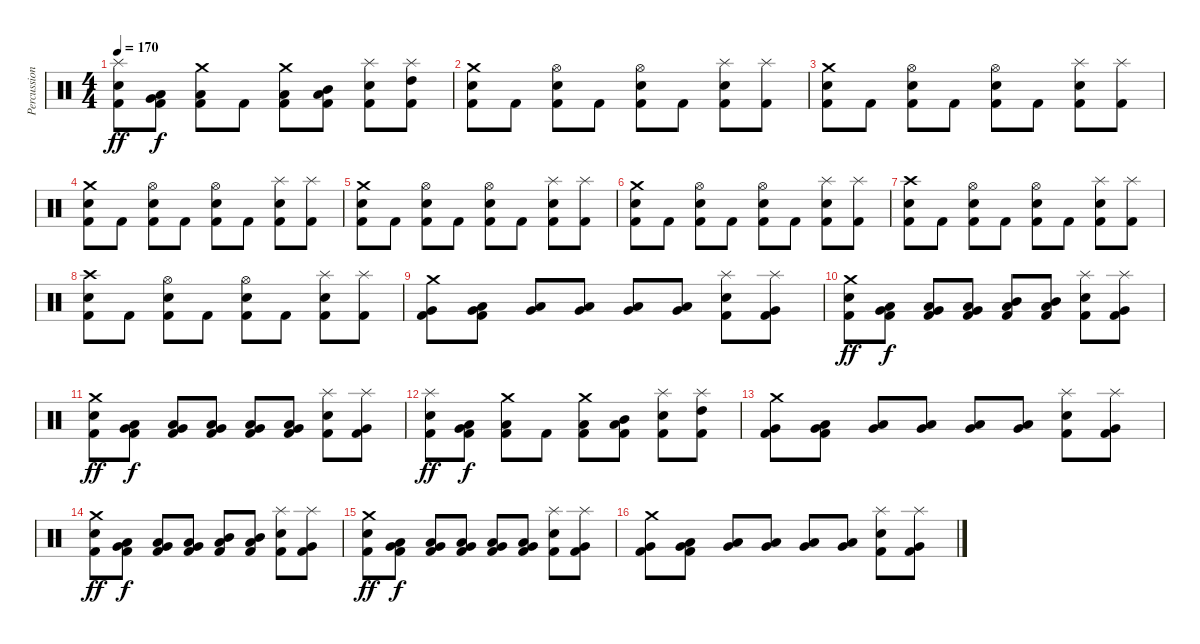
\track ("Percussion" "Percussion") {instrument percussion}
\staff {score}
\articulation defaults
\ts (4 4)
\tempo 170
\clef neutral
\ks c
("Splash (hit)" "Snare (hit) 2" "Kick (hit) 2").8{dy ff} ("Very Low Tom (hit)" "Low Tom (hit)" "Kick (hit) 2").8{dy f} ("Crash medium (hit)" "Low Tom (hit)" "Kick (hit) 2").8 "Kick (hit) 2".8 ("Crash medium (hit)" "Low Tom (hit)" "Kick (hit) 2").8 ("Low Tom (hit)" "Mid Tom (hit)" "Kick (hit) 2").8 ("Splash (hit)" "Snare (hit) 2" "Kick (hit) 2").8 ("Splash (hit)" "High Tom (hit)" "Kick (hit) 2").8 |
("Snare (hit) 2" "Crash medium (hit)" "Kick (hit) 2").8 "Kick (hit) 2".8 ("Snare (hit) 2" "Hi-Hat (open)" "Kick (hit) 2").8 "Kick (hit) 2".8 ("Snare (hit) 2" "Hi-Hat (open)" "Kick (hit) 2").8 "Kick (hit) 2".8 ("Snare (hit) 2" "Splash (hit)" "Kick (hit) 2").8 ("Splash (hit)" "Kick (hit) 2").8 |
("Snare (hit) 2" "Crash medium (hit)" "Kick (hit) 2").8 "Kick (hit) 2".8 ("Snare (hit) 2" "Hi-Hat (open)" "Kick (hit) 2").8 "Kick (hit) 2".8 ("Snare (hit) 2" "Hi-Hat (open)" "Kick (hit) 2").8 "Kick (hit) 2".8 ("Snare (hit) 2" "Splash (hit)" "Kick (hit) 2").8 ("Splash (hit)" "Kick (hit) 2").8 |
("Snare (hit) 2" "Crash medium (hit)" "Kick (hit) 2").8{volume 3} "Kick (hit) 2".8 ("Snare (hit) 2" "Hi-Hat (open)" "Kick (hit) 2").8 "Kick (hit) 2".8 ("Snare (hit) 2" "Hi-Hat (open)" "Kick (hit) 2").8 "Kick (hit) 2".8 ("Snare (hit) 2" "Splash (hit)" "Kick (hit) 2").8 ("Splash (hit)" "Kick (hit) 2").8 |
("Snare (hit) 2" "Crash medium (hit)" "Kick (hit) 2").8 "Kick (hit) 2".8 ("Snare (hit) 2" "Hi-Hat (open)" "Kick (hit) 2").8 "Kick (hit) 2".8 ("Snare (hit) 2" "Hi-Hat (open)" "Kick (hit) 2").8 "Kick (hit) 2".8 ("Snare (hit) 2" "Splash (hit)" "Kick (hit) 2").8 ("Splash (hit)" "Kick (hit) 2").8 |
("Snare (hit) 2" "Crash medium (hit)" "Kick (hit) 2").8 "Kick (hit) 2".8 ("Snare (hit) 2" "Hi-Hat (open)" "Kick (hit) 2").8 "Kick (hit) 2".8 ("Snare (hit) 2" "Hi-Hat (open)" "Kick (hit) 2").8 "Kick (hit) 2".8 ("Snare (hit) 2" "Splash (hit)" "Kick (hit) 2").8 ("Splash (hit)" "Kick (hit) 2").8 |
("Snare (hit) 2" "Crash high (hit)" "Kick (hit) 2").8 "Kick (hit) 2".8 ("Snare (hit) 2" "Hi-Hat (open)" "Kick (hit) 2").8 "Kick (hit) 2".8 ("Snare (hit) 2" "Hi-Hat (open)" "Kick (hit) 2").8 "Kick (hit) 2".8 ("Snare (hit) 2" "Splash (hit)" "Kick (hit) 2").8 ("Splash (hit)" "Kick (hit) 2").8 |
("Snare (hit) 2" "Crash high (hit)" "Kick (hit) 2").8{volume 1} "Kick (hit) 2".8 ("Snare (hit) 2" "Hi-Hat (open)" "Kick (hit) 2").8 "Kick (hit) 2".8 ("Snare (hit) 2" "Hi-Hat (open)" "Kick (hit) 2").8 "Kick (hit) 2".8 ("Snare (hit) 2" "Splash (hit)" "Kick (hit) 2").8 ("Splash (hit)" "Kick (hit) 2").8 |
("Crash medium (hit)" "Very Low Tom (hit)" "Kick (hit) 2").8 ("Very Low Tom (hit)" "Low Tom (hit)" "Kick (hit) 2").8 ("Very Low Tom (hit)" "Low Tom (hit)").8 ("Very Low Tom (hit)" "Low Tom (hit)").8 ("Very Low Tom (hit)" "Low Tom (hit)").8 ("Very Low Tom (hit)" "Low Tom (hit)").8 ("Splash (hit)" "Snare (hit) 2" "Kick (hit) 2").8 ("Splash (hit)" "Very Low Tom (hit)" "Kick (hit) 2").8 |
("Crash medium (hit)" "Snare (hit) 2" "Kick (hit) 2").8{dy ff} ("Very Low Tom (hit)" "Low Tom (hit)" "Kick (hit) 2").8{dy f} ("Very Low Tom (hit)" "Low Tom (hit)" "Kick (hit) 2").8 ("Very Low Tom (hit)" "Low Tom (hit)" "Kick (hit) 2").8 ("Low Tom (hit)" "Mid Tom (hit)" "Kick (hit) 2").8 ("Low Tom (hit)" "Mid Tom (hit)" "Kick (hit) 2").8 ("Splash (hit)" "Snare (hit) 2" "Kick (hit) 2").8 ("Splash (hit)" "Very Low Tom (hit)" "Kick (hit) 2").8 |
("Crash medium (hit)" "Snare (hit) 2" "Kick (hit) 2").8{dy ff} ("Very Low Tom (hit)" "Low Tom (hit)" "Kick (hit) 2").8{dy f} ("Very Low Tom (hit)" "Low Tom (hit)" "Kick (hit) 2").8 ("Very Low Tom (hit)" "Low Tom (hit)" "Kick (hit) 2").8 ("Very Low Tom (hit)" "Low Tom (hit)" "Kick (hit) 2").8 ("Very Low Tom (hit)" "Low Tom (hit)" "Kick (hit) 2").8 ("Splash (hit)" "Snare (hit) 2" "Kick (hit) 2").8 ("Splash (hit)" "Very Low Tom (hit)" "Kick (hit) 2").8 |
("Splash (hit)" "Snare (hit) 2" "Kick (hit) 2").8{dy ff volume 0} ("Very Low Tom (hit)" "Low Tom (hit)" "Kick (hit) 2").8{dy f} ("Crash medium (hit)" "Low Tom (hit)" "Kick (hit) 2").8 "Kick (hit) 2".8 ("Crash medium (hit)" "Low Tom (hit)" "Kick (hit) 2").8 ("Low Tom (hit)" "Mid Tom (hit)" "Kick (hit) 2").8 ("Splash (hit)" "Snare (hit) 2" "Kick (hit) 2").8 ("Splash (hit)" "High Tom (hit)" "Kick (hit) 2").8 |
("Crash medium (hit)" "Very Low Tom (hit)" "Kick (hit) 2").8 ("Very Low Tom (hit)" "Low Tom (hit)" "Kick (hit) 2").8 ("Very Low Tom (hit)" "Low Tom (hit)").8 ("Very Low Tom (hit)" "Low Tom (hit)").8 ("Very Low Tom (hit)" "Low Tom (hit)").8 ("Very Low Tom (hit)" "Low Tom (hit)").8 ("Splash (hit)" "Snare (hit) 2" "Kick (hit) 2").8 ("Splash (hit)" "Very Low Tom (hit)" "Kick (hit) 2").8 |
("Crash medium (hit)" "Snare (hit) 2" "Kick (hit) 2").8{dy ff} ("Very Low Tom (hit)" "Low Tom (hit)" "Kick (hit) 2").8{dy f} ("Very Low Tom (hit)" "Low Tom (hit)" "Kick (hit) 2").8 ("Very Low Tom (hit)" "Low Tom (hit)" "Kick (hit) 2").8 ("Low Tom (hit)" "Mid Tom (hit)" "Kick (hit) 2").8 ("Low Tom (hit)" "Mid Tom (hit)" "Kick (hit) 2").8 ("Splash (hit)" "Snare (hit) 2" "Kick (hit) 2").8 ("Splash (hit)" "Very Low Tom (hit)" "Kick (hit) 2").8 |
("Crash medium (hit)" "Snare (hit) 2" "Kick (hit) 2").8{dy ff} ("Very Low Tom (hit)" "Low Tom (hit)" "Kick (hit) 2").8{dy f} ("Very Low Tom (hit)" "Low Tom (hit)" "Kick (hit) 2").8 ("Very Low Tom (hit)" "Low Tom (hit)" "Kick (hit) 2").8 ("Very Low Tom (hit)" "Low Tom (hit)" "Kick (hit) 2").8 ("Very Low Tom (hit)" "Low Tom (hit)" "Kick (hit) 2").8 ("Splash (hit)" "Snare (hit) 2" "Kick (hit) 2").8 ("Splash (hit)" "Very Low Tom (hit)" "Kick (hit) 2").8 |
("Crash medium (hit)" "Very Low Tom (hit)" "Kick (hit) 2").8 ("Very Low Tom (hit)" "Low Tom (hit)" "Kick (hit) 2").8 ("Very Low Tom (hit)" "Low Tom (hit)").8 ("Very Low Tom (hit)" "Low Tom (hit)").8 ("Very Low Tom (hit)" "Low Tom (hit)").8 ("Very Low Tom (hit)" "Low Tom (hit)").8 ("Splash (hit)" "Snare (hit) 2" "Kick (hit) 2").8 ("Splash (hit)" "Very Low Tom (hit)" "Kick (hit) 2").8
